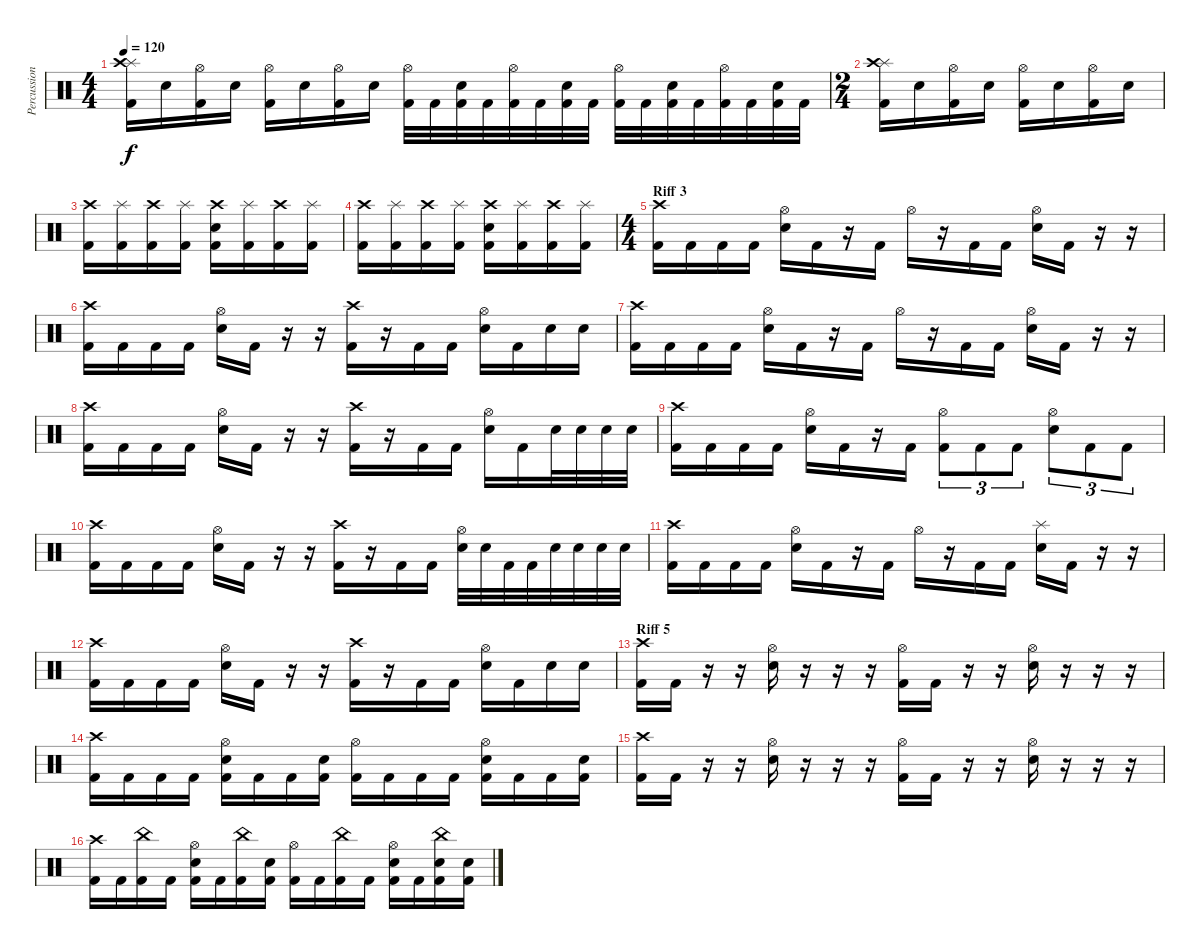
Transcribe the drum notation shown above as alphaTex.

\track ("Percussion" "Percussion") {instrument percussion}
\staff {score}
\articulation defaults
\ts (4 4)
\tempo 120
\clef neutral
\ks c
("Splash (hit)" "Crash high (hit)" "Kick (hit) 2").16{dy f} "Electric Snare (hit)".16 ("Hi-Hat (open)" "Kick (hit) 2").16 "Electric Snare (hit)".16 ("Hi-Hat (open)" "Kick (hit) 2").16 "Electric Snare (hit)".16 ("Hi-Hat (open)" "Kick (hit) 2").16 "Electric Snare (hit)".16 ("Hi-Hat (open)" "Kick (hit) 2").32 "Kick (hit) 2".32 ("Electric Snare (hit)" "Kick (hit) 2").32 "Kick (hit) 2".32 ("Hi-Hat (open)" "Kick (hit) 2").32 "Kick (hit) 2".32 ("Electric Snare (hit)" "Kick (hit) 2").32 "Kick (hit) 2".32 ("Hi-Hat (open)" "Kick (hit) 2").32 "Kick (hit) 2".32 ("Electric Snare (hit)" "Kick (hit) 2").32 "Kick (hit) 2".32 ("Hi-Hat (open)" "Kick (hit) 2").32 "Kick (hit) 2".32 ("Electric Snare (hit)" "Kick (hit) 2").32 "Kick (hit) 2".32 |
\ts (2 4)
("Splash (hit)" "Crash high (hit)" "Kick (hit) 2").16 "Electric Snare (hit)".16 ("Hi-Hat (open)" "Kick (hit) 2").16 "Electric Snare (hit)".16 ("Hi-Hat (open)" "Kick (hit) 2").16 "Electric Snare (hit)".16 ("Hi-Hat (open)" "Kick (hit) 2").16 "Electric Snare (hit)".16 |
("Crash high (hit)" "Kick (hit) 2").16 ("Splash (hit)" "Kick (hit) 2").16 ("Crash high (hit)" "Kick (hit) 2").16 ("Splash (hit)" "Kick (hit) 2").16 ("Crash high (hit)" "Electric Snare (hit)" "Kick (hit) 2").16 ("Splash (hit)" "Kick (hit) 2").16 ("Crash high (hit)" "Kick (hit) 2").16 ("Splash (hit)" "Kick (hit) 2").16 |
("Crash high (hit)" "Kick (hit) 2").16 ("Splash (hit)" "Kick (hit) 2").16 ("Crash high (hit)" "Kick (hit) 2").16 ("Splash (hit)" "Kick (hit) 2").16 ("Crash high (hit)" "Electric Snare (hit)" "Kick (hit) 2").16 ("Splash (hit)" "Kick (hit) 2").16 ("Crash high (hit)" "Kick (hit) 2").16 ("Splash (hit)" "Kick (hit) 2").16 |
\ts (4 4)
\section ("" "Riff 3")
("Crash high (hit)" "Kick (hit) 2").16 "Kick (hit) 2".16 "Kick (hit) 2".16 "Kick (hit) 2".16 ("Hi-Hat (open)" "Electric Snare (hit)").16 "Kick (hit) 2".16 r.16 "Kick (hit) 2".16 "Hi-Hat (open)".16 r.16 "Kick (hit) 2".16 "Kick (hit) 2".16 ("Hi-Hat (open)" "Electric Snare (hit)").16 "Kick (hit) 2".16 r.16 r.16 |
("Crash high (hit)" "Kick (hit) 2").16 "Kick (hit) 2".16 "Kick (hit) 2".16 "Kick (hit) 2".16 ("Hi-Hat (open)" "Electric Snare (hit)").16 "Kick (hit) 2".16 r.16 r.16 ("Crash high (hit)" "Kick (hit) 2").16 r.16 "Kick (hit) 2".16 "Kick (hit) 2".16 ("Hi-Hat (open)" "Electric Snare (hit)").16 "Kick (hit) 2".16 "Electric Snare (hit)".16 "Electric Snare (hit)".16 |
("Crash high (hit)" "Kick (hit) 2").16 "Kick (hit) 2".16 "Kick (hit) 2".16 "Kick (hit) 2".16 ("Hi-Hat (open)" "Electric Snare (hit)").16 "Kick (hit) 2".16 r.16 "Kick (hit) 2".16 "Hi-Hat (open)".16 r.16 "Kick (hit) 2".16 "Kick (hit) 2".16 ("Hi-Hat (open)" "Electric Snare (hit)").16 "Kick (hit) 2".16 r.16 r.16 |
("Crash high (hit)" "Kick (hit) 2").16 "Kick (hit) 2".16 "Kick (hit) 2".16 "Kick (hit) 2".16 ("Hi-Hat (open)" "Electric Snare (hit)").16 "Kick (hit) 2".16 r.16 r.16 ("Crash high (hit)" "Kick (hit) 2").16 r.16 "Kick (hit) 2".16 "Kick (hit) 2".16 ("Hi-Hat (open)" "Electric Snare (hit)").16 "Kick (hit) 2".16 "Electric Snare (hit)".32 "Electric Snare (hit)".32 "Electric Snare (hit)".32 "Electric Snare (hit)".32 |
("Crash high (hit)" "Kick (hit) 2").16 "Kick (hit) 2".16 "Kick (hit) 2".16 "Kick (hit) 2".16 ("Hi-Hat (open)" "Electric Snare (hit)").16 "Kick (hit) 2".16 r.16 "Kick (hit) 2".16 ("Hi-Hat (open)" "Kick (hit) 2").8{tu (3 2)} "Kick (hit) 2".8{tu (3 2)} "Kick (hit) 2".8{tu (3 2)} ("Hi-Hat (open)" "Electric Snare (hit)").8{tu (3 2)} "Kick (hit) 2".8{tu (3 2)} "Kick (hit) 2".8{tu (3 2)} |
("Crash high (hit)" "Kick (hit) 2").16 "Kick (hit) 2".16 "Kick (hit) 2".16 "Kick (hit) 2".16 ("Hi-Hat (open)" "Electric Snare (hit)").16 "Kick (hit) 2".16 r.16 r.16 ("Crash high (hit)" "Kick (hit) 2").16 r.16 "Kick (hit) 2".16 "Kick (hit) 2".16 ("Hi-Hat (open)" "Electric Snare (hit)").32 "Electric Snare (hit)".32 "Kick (hit) 2".32 "Kick (hit) 2".32 "Electric Snare (hit)".32 "Electric Snare (hit)".32 "Electric Snare (hit)".32 "Electric Snare (hit)".32 |
("Crash high (hit)" "Kick (hit) 2").16 "Kick (hit) 2".16 "Kick (hit) 2".16 "Kick (hit) 2".16 ("Hi-Hat (open)" "Electric Snare (hit)").16 "Kick (hit) 2".16 r.16 "Kick (hit) 2".16 "Hi-Hat (open)".16 r.16 "Kick (hit) 2".16 "Kick (hit) 2".16 ("Splash (hit)" "Electric Snare (hit)").16 "Kick (hit) 2".16 r.16 r.16 |
("Crash high (hit)" "Kick (hit) 2").16 "Kick (hit) 2".16 "Kick (hit) 2".16 "Kick (hit) 2".16 ("Hi-Hat (open)" "Electric Snare (hit)").16 "Kick (hit) 2".16 r.16 r.16 ("Crash high (hit)" "Kick (hit) 2").16 r.16 "Kick (hit) 2".16 "Kick (hit) 2".16 ("Hi-Hat (open)" "Electric Snare (hit)").16 "Kick (hit) 2".16 "Electric Snare (hit)".16 "Electric Snare (hit)".16 |
\section ("" "Riff 5")
("Crash high (hit)" "Kick (hit) 2").16 "Kick (hit) 2".16 r.16 r.16 ("Hi-Hat (open)" "Electric Snare (hit)").16 r.16 r.16 r.16 ("Hi-Hat (open)" "Kick (hit) 2").16 "Kick (hit) 2".16 r.16 r.16 ("Hi-Hat (open)" "Electric Snare (hit)").16 r.16 r.16 r.16 |
("Crash high (hit)" "Kick (hit) 2").16 "Kick (hit) 2".16 "Kick (hit) 2".16 "Kick (hit) 2".16 ("Hi-Hat (open)" "Electric Snare (hit)" "Kick (hit) 2").16 "Kick (hit) 2".16 "Kick (hit) 2".16 ("Electric Snare (hit)" "Kick (hit) 2").16 ("Hi-Hat (open)" "Kick (hit) 2").16 "Kick (hit) 2".16 "Kick (hit) 2".16 "Kick (hit) 2".16 ("Hi-Hat (open)" "Electric Snare (hit)" "Kick (hit) 2").16 "Kick (hit) 2".16 "Kick (hit) 2".16 ("Electric Snare (hit)" "Kick (hit) 2").16 |
("Crash high (hit)" "Kick (hit) 2").16 "Kick (hit) 2".16 r.16 r.16 ("Hi-Hat (open)" "Electric Snare (hit)").16 r.16 r.16 r.16 ("Hi-Hat (open)" "Kick (hit) 2").16 "Kick (hit) 2".16 r.16 r.16 ("Hi-Hat (open)" "Electric Snare (hit)").16 r.16 r.16 r.16 |
("Crash high (hit)" "Kick (hit) 2").16 "Kick (hit) 2".16 ("China (hit)" "Kick (hit) 2").16 "Kick (hit) 2".16 ("Hi-Hat (open)" "Electric Snare (hit)" "Kick (hit) 2").16 "Kick (hit) 2".16 ("China (hit)" "Kick (hit) 2").16 ("Electric Snare (hit)" "Kick (hit) 2").16 ("Hi-Hat (open)" "Kick (hit) 2").16 "Kick (hit) 2".16 ("China (hit)" "Kick (hit) 2").16 "Kick (hit) 2".16 ("Hi-Hat (open)" "Electric Snare (hit)" "Kick (hit) 2").16 "Kick (hit) 2".16 ("China (hit)" "Electric Snare (hit)" "Kick (hit) 2").16 ("Electric Snare (hit)" "Kick (hit) 2").16
